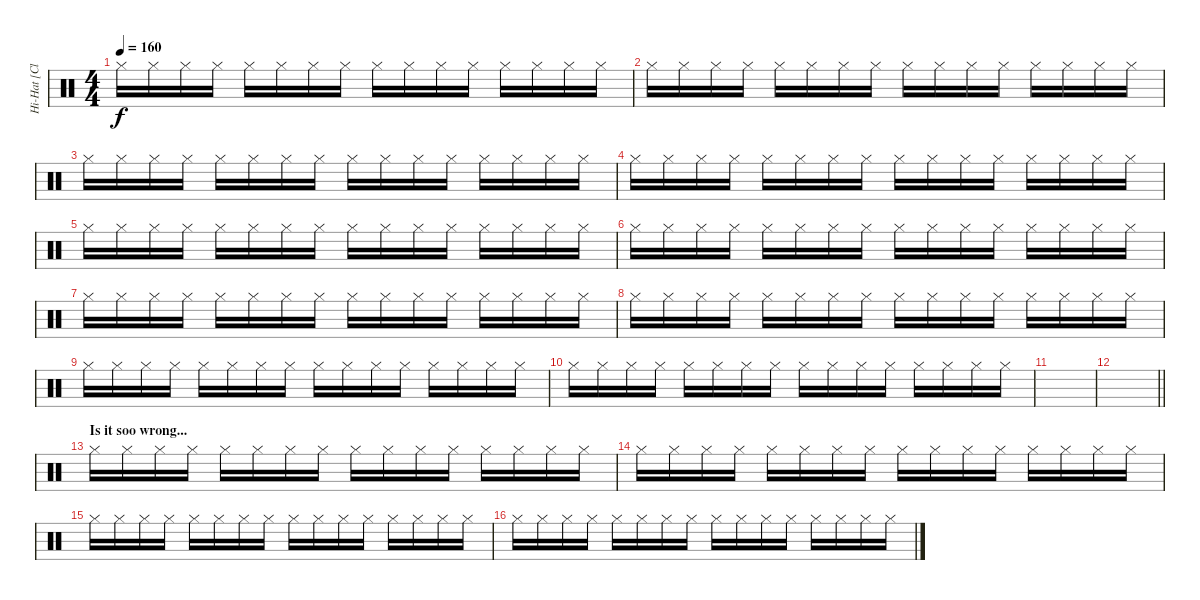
\track ("Hi-Hat [Closed]" "Hi-Hat [Cl") {instrument percussion}
\staff {score}
\articulation defaults
\ts (4 4)
\tempo 160
\clef neutral
\ks c "Hi-Hat (closed)".16{dy f} "Hi-Hat (closed)".16 "Hi-Hat (closed)".16 "Hi-Hat (closed)".16 "Hi-Hat (closed)".16 "Hi-Hat (closed)".16 "Hi-Hat (closed)".16 "Hi-Hat (closed)".16 "Hi-Hat (closed)".16 "Hi-Hat (closed)".16 "Hi-Hat (closed)".16 "Hi-Hat (closed)".16 "Hi-Hat (closed)".16 "Hi-Hat (closed)".16 "Hi-Hat (closed)".16 "Hi-Hat (closed)".16
|
"Hi-Hat (closed)".16 "Hi-Hat (closed)".16 "Hi-Hat (closed)".16 "Hi-Hat (closed)".16 "Hi-Hat (closed)".16 "Hi-Hat (closed)".16 "Hi-Hat (closed)".16 "Hi-Hat (closed)".16 "Hi-Hat (closed)".16 "Hi-Hat (closed)".16 "Hi-Hat (closed)".16 "Hi-Hat (closed)".16 "Hi-Hat (closed)".16 "Hi-Hat (closed)".16 "Hi-Hat (closed)".16 "Hi-Hat (closed)".16 |
"Hi-Hat (closed)".16 "Hi-Hat (closed)".16 "Hi-Hat (closed)".16 "Hi-Hat (closed)".16 "Hi-Hat (closed)".16 "Hi-Hat (closed)".16 "Hi-Hat (closed)".16 "Hi-Hat (closed)".16 "Hi-Hat (closed)".16 "Hi-Hat (closed)".16 "Hi-Hat (closed)".16 "Hi-Hat (closed)".16 "Hi-Hat (closed)".16 "Hi-Hat (closed)".16 "Hi-Hat (closed)".16 "Hi-Hat (closed)".16 |
"Hi-Hat (closed)".16 "Hi-Hat (closed)".16 "Hi-Hat (closed)".16 "Hi-Hat (closed)".16 "Hi-Hat (closed)".16 "Hi-Hat (closed)".16 "Hi-Hat (closed)".16 "Hi-Hat (closed)".16 "Hi-Hat (closed)".16 "Hi-Hat (closed)".16 "Hi-Hat (closed)".16 "Hi-Hat (closed)".16 "Hi-Hat (closed)".16 "Hi-Hat (closed)".16 "Hi-Hat (closed)".16 "Hi-Hat (closed)".16 |
"Hi-Hat (closed)".16 "Hi-Hat (closed)".16 "Hi-Hat (closed)".16 "Hi-Hat (closed)".16 "Hi-Hat (closed)".16 "Hi-Hat (closed)".16 "Hi-Hat (closed)".16 "Hi-Hat (closed)".16 "Hi-Hat (closed)".16 "Hi-Hat (closed)".16 "Hi-Hat (closed)".16 "Hi-Hat (closed)".16 "Hi-Hat (closed)".16 "Hi-Hat (closed)".16 "Hi-Hat (closed)".16 "Hi-Hat (closed)".16 |
"Hi-Hat (closed)".16 "Hi-Hat (closed)".16 "Hi-Hat (closed)".16 "Hi-Hat (closed)".16 "Hi-Hat (closed)".16 "Hi-Hat (closed)".16 "Hi-Hat (closed)".16 "Hi-Hat (closed)".16 "Hi-Hat (closed)".16 "Hi-Hat (closed)".16 "Hi-Hat (closed)".16 "Hi-Hat (closed)".16 "Hi-Hat (closed)".16 "Hi-Hat (closed)".16 "Hi-Hat (closed)".16 "Hi-Hat (closed)".16 |
"Hi-Hat (closed)".16 "Hi-Hat (closed)".16 "Hi-Hat (closed)".16 "Hi-Hat (closed)".16 "Hi-Hat (closed)".16 "Hi-Hat (closed)".16 "Hi-Hat (closed)".16 "Hi-Hat (closed)".16 "Hi-Hat (closed)".16 "Hi-Hat (closed)".16 "Hi-Hat (closed)".16 "Hi-Hat (closed)".16 "Hi-Hat (closed)".16 "Hi-Hat (closed)".16 "Hi-Hat (closed)".16 "Hi-Hat (closed)".16 |
"Hi-Hat (closed)".16 "Hi-Hat (closed)".16 "Hi-Hat (closed)".16 "Hi-Hat (closed)".16 "Hi-Hat (closed)".16 "Hi-Hat (closed)".16 "Hi-Hat (closed)".16 "Hi-Hat (closed)".16 "Hi-Hat (closed)".16 "Hi-Hat (closed)".16 "Hi-Hat (closed)".16 "Hi-Hat (closed)".16 "Hi-Hat (closed)".16 "Hi-Hat (closed)".16 "Hi-Hat (closed)".16 "Hi-Hat (closed)".16 |
"Hi-Hat (closed)".16 "Hi-Hat (closed)".16 "Hi-Hat (closed)".16 "Hi-Hat (closed)".16 "Hi-Hat (closed)".16 "Hi-Hat (closed)".16 "Hi-Hat (closed)".16 "Hi-Hat (closed)".16 "Hi-Hat (closed)".16 "Hi-Hat (closed)".16 "Hi-Hat (closed)".16 "Hi-Hat (closed)".16 "Hi-Hat (closed)".16 "Hi-Hat (closed)".16 "Hi-Hat (closed)".16 "Hi-Hat (closed)".16 |
"Hi-Hat (closed)".16 "Hi-Hat (closed)".16 "Hi-Hat (closed)".16 "Hi-Hat (closed)".16 "Hi-Hat (closed)".16 "Hi-Hat (closed)".16 "Hi-Hat (closed)".16 "Hi-Hat (closed)".16 "Hi-Hat (closed)".16 "Hi-Hat (closed)".16 "Hi-Hat (closed)".16 "Hi-Hat (closed)".16 "Hi-Hat (closed)".16 "Hi-Hat (closed)".16 "Hi-Hat (closed)".16 "Hi-Hat (closed)".16 |
|
\barLineRight lightlight
|
\section ("" "Is it soo wrong...")
"Hi-Hat (closed)".16 "Hi-Hat (closed)".16 "Hi-Hat (closed)".16 "Hi-Hat (closed)".16 "Hi-Hat (closed)".16 "Hi-Hat (closed)".16 "Hi-Hat (closed)".16 "Hi-Hat (closed)".16 "Hi-Hat (closed)".16 "Hi-Hat (closed)".16 "Hi-Hat (closed)".16 "Hi-Hat (closed)".16 "Hi-Hat (closed)".16 "Hi-Hat (closed)".16 "Hi-Hat (closed)".16 "Hi-Hat (closed)".16 |
"Hi-Hat (closed)".16 "Hi-Hat (closed)".16 "Hi-Hat (closed)".16 "Hi-Hat (closed)".16 "Hi-Hat (closed)".16 "Hi-Hat (closed)".16 "Hi-Hat (closed)".16 "Hi-Hat (closed)".16 "Hi-Hat (closed)".16 "Hi-Hat (closed)".16 "Hi-Hat (closed)".16 "Hi-Hat (closed)".16 "Hi-Hat (closed)".16 "Hi-Hat (closed)".16 "Hi-Hat (closed)".16 "Hi-Hat (closed)".16 |
"Hi-Hat (closed)".16 "Hi-Hat (closed)".16 "Hi-Hat (closed)".16 "Hi-Hat (closed)".16 "Hi-Hat (closed)".16 "Hi-Hat (closed)".16 "Hi-Hat (closed)".16 "Hi-Hat (closed)".16 "Hi-Hat (closed)".16 "Hi-Hat (closed)".16 "Hi-Hat (closed)".16 "Hi-Hat (closed)".16 "Hi-Hat (closed)".16 "Hi-Hat (closed)".16 "Hi-Hat (closed)".16 "Hi-Hat (closed)".16 |
"Hi-Hat (closed)".16 "Hi-Hat (closed)".16 "Hi-Hat (closed)".16 "Hi-Hat (closed)".16 "Hi-Hat (closed)".16 "Hi-Hat (closed)".16 "Hi-Hat (closed)".16 "Hi-Hat (closed)".16 "Hi-Hat (closed)".16 "Hi-Hat (closed)".16 "Hi-Hat (closed)".16 "Hi-Hat (closed)".16 "Hi-Hat (closed)".16 "Hi-Hat (closed)".16 "Hi-Hat (closed)".16 "Hi-Hat (closed)".16
